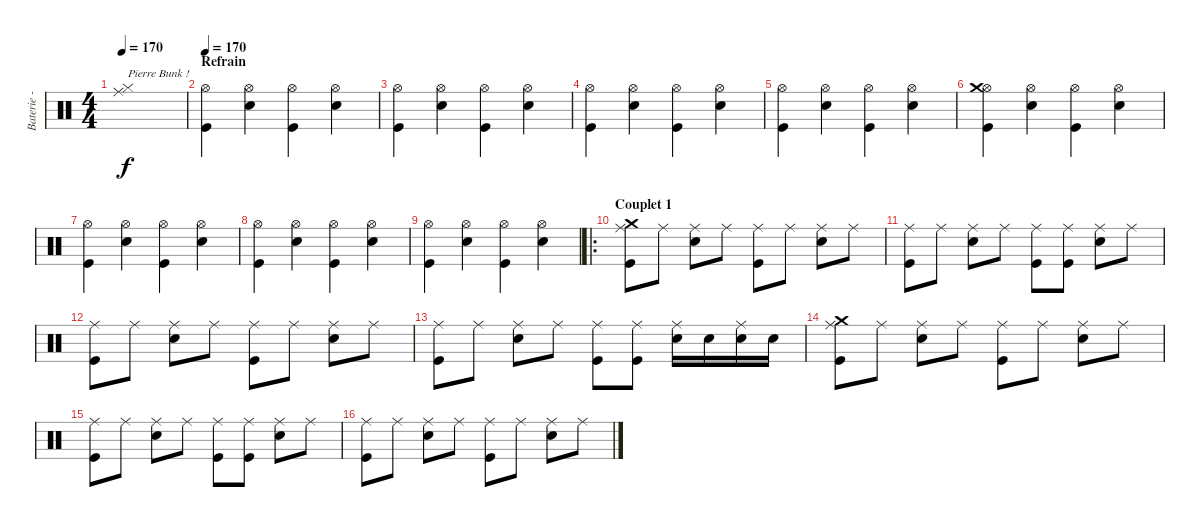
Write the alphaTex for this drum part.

\track ("Baterie - Alex" "Baterie - ") {instrument percussion}
\staff {score}
\articulation defaults
\ts (4 4)
\tempo 170
\clef neutral
\ks c
("Hi-Hat (closed)" "Ride (middle)").1{txt "Pierre Bunk !" dy f} |
\section ("" "Refrain")
\tempo 170
("Hi-Hat (open)" "Kick (hit)").4 ("Hi-Hat (open)" "Electric Snare (hit)").4 ("Hi-Hat (open)" "Kick (hit)").4 ("Hi-Hat (open)" "Electric Snare (hit)").4 |
("Hi-Hat (open)" "Kick (hit)").4 ("Hi-Hat (open)" "Electric Snare (hit)").4 ("Hi-Hat (open)" "Kick (hit)").4 ("Hi-Hat (open)" "Electric Snare (hit)").4 |
("Hi-Hat (open)" "Kick (hit)").4 ("Hi-Hat (open)" "Electric Snare (hit)").4 ("Hi-Hat (open)" "Kick (hit)").4 ("Hi-Hat (open)" "Electric Snare (hit)").4 |
("Hi-Hat (open)" "Kick (hit)").4 ("Hi-Hat (open)" "Electric Snare (hit)").4 ("Hi-Hat (open)" "Kick (hit)").4 ("Hi-Hat (open)" "Electric Snare (hit)").4 |
("Hi-Hat (open)" "Crash medium (hit)" "Kick (hit)").4 ("Hi-Hat (open)" "Electric Snare (hit)").4 ("Hi-Hat (open)" "Kick (hit)").4 ("Hi-Hat (open)" "Electric Snare (hit)").4 |
("Hi-Hat (open)" "Kick (hit)").4 ("Hi-Hat (open)" "Electric Snare (hit)").4 ("Hi-Hat (open)" "Kick (hit)").4 ("Hi-Hat (open)" "Electric Snare (hit)").4 |
("Hi-Hat (open)" "Kick (hit)").4 ("Hi-Hat (open)" "Electric Snare (hit)").4 ("Hi-Hat (open)" "Kick (hit)").4 ("Hi-Hat (open)" "Electric Snare (hit)").4 |
("Hi-Hat (open)" "Kick (hit)").4 ("Hi-Hat (open)" "Electric Snare (hit)").4 ("Hi-Hat (open)" "Kick (hit)").4 ("Hi-Hat (open)" "Electric Snare (hit)").4 |
\ro
\section ("" "Couplet 1")
("Ride (middle)" "Crash medium (hit)" "Kick (hit)").8 "Ride (middle)".8 ("Ride (middle)" "Electric Snare (hit)").8 "Ride (middle)".8 ("Ride (middle)" "Kick (hit)").8 "Ride (middle)".8 ("Ride (middle)" "Electric Snare (hit)").8 "Ride (middle)".8 |
("Ride (middle)" "Kick (hit)").8 "Ride (middle)".8 ("Ride (middle)" "Electric Snare (hit)").8 "Ride (middle)".8 ("Ride (middle)" "Kick (hit)").8 ("Ride (middle)" "Kick (hit)").8 ("Ride (middle)" "Electric Snare (hit)").8 "Ride (middle)".8 |
("Ride (middle)" "Kick (hit)").8 "Ride (middle)".8 ("Ride (middle)" "Electric Snare (hit)").8 "Ride (middle)".8 ("Ride (middle)" "Kick (hit)").8 "Ride (middle)".8 ("Ride (middle)" "Electric Snare (hit)").8 "Ride (middle)".8 |
("Ride (middle)" "Kick (hit)").8 "Ride (middle)".8 ("Ride (middle)" "Electric Snare (hit)").8 "Ride (middle)".8 ("Ride (middle)" "Kick (hit)").8 ("Ride (middle)" "Kick (hit)").8 ("Ride (middle)" "Electric Snare (hit)").16 "Electric Snare (hit)".16 ("Ride (middle)" "Electric Snare (hit)").16 "Electric Snare (hit)".16 |
("Ride (middle)" "Crash medium (hit)" "Kick (hit)").8 "Ride (middle)".8 ("Ride (middle)" "Electric Snare (hit)").8 "Ride (middle)".8 ("Ride (middle)" "Kick (hit)").8 "Ride (middle)".8 ("Ride (middle)" "Electric Snare (hit)").8 "Ride (middle)".8 |
("Ride (middle)" "Kick (hit)").8 "Ride (middle)".8 ("Ride (middle)" "Electric Snare (hit)").8 "Ride (middle)".8 ("Ride (middle)" "Kick (hit)").8 ("Ride (middle)" "Kick (hit)").8 ("Ride (middle)" "Electric Snare (hit)").8 "Ride (middle)".8 |
("Ride (middle)" "Kick (hit)").8 "Ride (middle)".8 ("Ride (middle)" "Electric Snare (hit)").8 "Ride (middle)".8 ("Ride (middle)" "Kick (hit)").8 "Ride (middle)".8 ("Ride (middle)" "Electric Snare (hit)").8 "Ride (middle)".8
